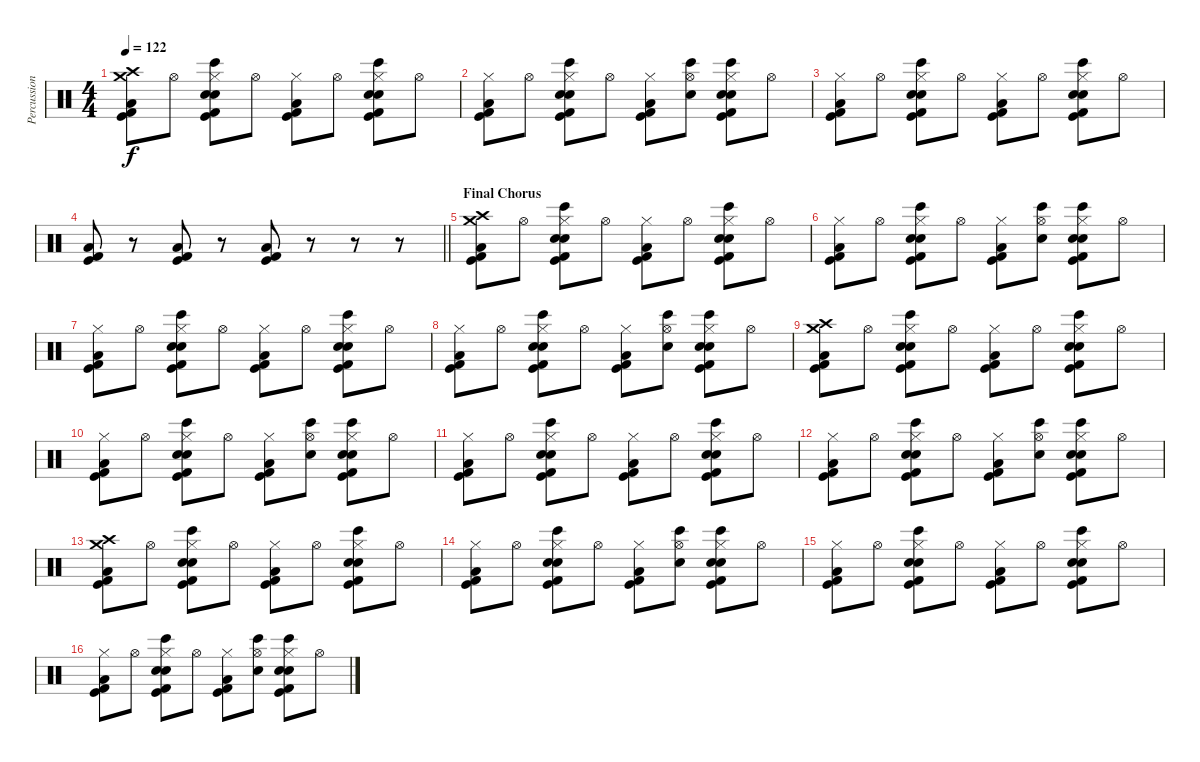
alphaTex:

\track ("Percussion" "Percussion") {instrument percussion}
\staff {score}
\articulation defaults
\ts (4 4)
\tempo 122
\clef neutral
\ks c
("Crash medium (hit)" "Crash high (hit)" "Low Floor Tom (hit)" "Kick (hit)" "Kick (hit) 2").8{dy f balance 8} "Hi-Hat (open)".8 ("Hand Clap (hit)" "Bongo High (hit)" "Hi-Hat (closed)" "Electric Snare (hit)" "Kick (hit)" "Kick (hit) 2").8 "Hi-Hat (open)".8 ("Hi-Hat (closed)" "Low Floor Tom (hit)" "Kick (hit)" "Kick (hit) 2").8 "Hi-Hat (open)".8 ("Hand Clap (hit)" "Bongo High (hit)" "Hi-Hat (closed)" "Electric Snare (hit)" "Kick (hit)" "Kick (hit) 2").8 "Hi-Hat (open)".8 |
("Hi-Hat (closed)" "Low Floor Tom (hit)" "Kick (hit)" "Kick (hit) 2").8 "Hi-Hat (open)".8 ("Hand Clap (hit)" "Bongo High (hit)" "Hi-Hat (closed)" "Electric Snare (hit)" "Kick (hit)" "Kick (hit) 2").8 "Hi-Hat (open)".8 ("Hi-Hat (closed)" "Low Floor Tom (hit)" "Kick (hit)" "Kick (hit) 2").8 ("Hand Clap (hit)" "Bongo High (hit)" "Hi-Hat (open)").8 ("Hand Clap (hit)" "Bongo High (hit)" "Hi-Hat (closed)" "Electric Snare (hit)" "Kick (hit)" "Kick (hit) 2").8 "Hi-Hat (open)".8 |
("Hi-Hat (closed)" "Low Floor Tom (hit)" "Kick (hit)" "Kick (hit) 2").8 "Hi-Hat (open)".8 ("Hand Clap (hit)" "Bongo High (hit)" "Hi-Hat (closed)" "Electric Snare (hit)" "Kick (hit)" "Kick (hit) 2").8 "Hi-Hat (open)".8 ("Hi-Hat (closed)" "Low Floor Tom (hit)" "Kick (hit)" "Kick (hit) 2").8 "Hi-Hat (open)".8 ("Hand Clap (hit)" "Bongo High (hit)" "Hi-Hat (closed)" "Electric Snare (hit)" "Kick (hit)" "Kick (hit) 2").8 "Hi-Hat (open)".8 |
\barLineRight lightlight
("Low Floor Tom (hit)" "Kick (hit) 2" "Kick (hit)").8 r.8 ("Low Floor Tom (hit)" "Kick (hit) 2" "Kick (hit)").8 r.8 ("Low Floor Tom (hit)" "Kick (hit) 2" "Kick (hit)").8 r.8 r.8 r.8 |
\section ("" "Final Chorus")
("Crash medium (hit)" "Crash high (hit)" "Low Floor Tom (hit)" "Kick (hit)" "Kick (hit) 2").8 "Hi-Hat (open)".8 ("Hand Clap (hit)" "Bongo High (hit)" "Hi-Hat (closed)" "Electric Snare (hit)" "Kick (hit)" "Kick (hit) 2").8 "Hi-Hat (open)".8 ("Hi-Hat (closed)" "Low Floor Tom (hit)" "Kick (hit)" "Kick (hit) 2").8 "Hi-Hat (open)".8 ("Hand Clap (hit)" "Bongo High (hit)" "Hi-Hat (closed)" "Electric Snare (hit)" "Kick (hit)" "Kick (hit) 2").8 "Hi-Hat (open)".8 |
("Hi-Hat (closed)" "Low Floor Tom (hit)" "Kick (hit)" "Kick (hit) 2").8 "Hi-Hat (open)".8 ("Hand Clap (hit)" "Bongo High (hit)" "Hi-Hat (closed)" "Electric Snare (hit)" "Kick (hit)" "Kick (hit) 2").8 "Hi-Hat (open)".8 ("Hi-Hat (closed)" "Low Floor Tom (hit)" "Kick (hit)" "Kick (hit) 2").8 ("Hand Clap (hit)" "Bongo High (hit)" "Hi-Hat (open)").8 ("Hand Clap (hit)" "Bongo High (hit)" "Hi-Hat (closed)" "Electric Snare (hit)" "Kick (hit)" "Kick (hit) 2").8 "Hi-Hat (open)".8 |
("Hi-Hat (closed)" "Low Floor Tom (hit)" "Kick (hit)" "Kick (hit) 2").8 "Hi-Hat (open)".8 ("Hand Clap (hit)" "Bongo High (hit)" "Hi-Hat (closed)" "Electric Snare (hit)" "Kick (hit)" "Kick (hit) 2").8 "Hi-Hat (open)".8 ("Hi-Hat (closed)" "Low Floor Tom (hit)" "Kick (hit)" "Kick (hit) 2").8 "Hi-Hat (open)".8 ("Hand Clap (hit)" "Bongo High (hit)" "Hi-Hat (closed)" "Electric Snare (hit)" "Kick (hit)" "Kick (hit) 2").8 "Hi-Hat (open)".8 |
("Hi-Hat (closed)" "Low Floor Tom (hit)" "Kick (hit)" "Kick (hit) 2").8 "Hi-Hat (open)".8 ("Hand Clap (hit)" "Bongo High (hit)" "Hi-Hat (closed)" "Electric Snare (hit)" "Kick (hit)" "Kick (hit) 2").8 "Hi-Hat (open)".8 ("Hi-Hat (closed)" "Low Floor Tom (hit)" "Kick (hit)" "Kick (hit) 2").8 ("Hand Clap (hit)" "Bongo High (hit)" "Hi-Hat (open)").8 ("Hand Clap (hit)" "Bongo High (hit)" "Hi-Hat (closed)" "Electric Snare (hit)" "Kick (hit)" "Kick (hit) 2").8 "Hi-Hat (open)".8 |
("Crash medium (hit)" "Crash high (hit)" "Low Floor Tom (hit)" "Kick (hit)" "Kick (hit) 2").8 "Hi-Hat (open)".8 ("Hand Clap (hit)" "Bongo High (hit)" "Hi-Hat (closed)" "Electric Snare (hit)" "Kick (hit)" "Kick (hit) 2").8 "Hi-Hat (open)".8 ("Hi-Hat (closed)" "Low Floor Tom (hit)" "Kick (hit)" "Kick (hit) 2").8 "Hi-Hat (open)".8 ("Hand Clap (hit)" "Bongo High (hit)" "Hi-Hat (closed)" "Electric Snare (hit)" "Kick (hit)" "Kick (hit) 2").8 "Hi-Hat (open)".8 |
("Hi-Hat (closed)" "Low Floor Tom (hit)" "Kick (hit)" "Kick (hit) 2").8 "Hi-Hat (open)".8 ("Hand Clap (hit)" "Bongo High (hit)" "Hi-Hat (closed)" "Electric Snare (hit)" "Kick (hit)" "Kick (hit) 2").8 "Hi-Hat (open)".8 ("Hi-Hat (closed)" "Low Floor Tom (hit)" "Kick (hit)" "Kick (hit) 2").8 ("Hand Clap (hit)" "Bongo High (hit)" "Hi-Hat (open)").8 ("Hand Clap (hit)" "Bongo High (hit)" "Hi-Hat (closed)" "Electric Snare (hit)" "Kick (hit)" "Kick (hit) 2").8 "Hi-Hat (open)".8 |
("Hi-Hat (closed)" "Low Floor Tom (hit)" "Kick (hit)" "Kick (hit) 2").8 "Hi-Hat (open)".8 ("Hand Clap (hit)" "Bongo High (hit)" "Hi-Hat (closed)" "Electric Snare (hit)" "Kick (hit)" "Kick (hit) 2").8 "Hi-Hat (open)".8 ("Hi-Hat (closed)" "Low Floor Tom (hit)" "Kick (hit)" "Kick (hit) 2").8 "Hi-Hat (open)".8 ("Hand Clap (hit)" "Bongo High (hit)" "Hi-Hat (closed)" "Electric Snare (hit)" "Kick (hit)" "Kick (hit) 2").8 "Hi-Hat (open)".8 |
("Hi-Hat (closed)" "Low Floor Tom (hit)" "Kick (hit)" "Kick (hit) 2").8 "Hi-Hat (open)".8 ("Hand Clap (hit)" "Bongo High (hit)" "Hi-Hat (closed)" "Electric Snare (hit)" "Kick (hit)" "Kick (hit) 2").8 "Hi-Hat (open)".8 ("Hi-Hat (closed)" "Low Floor Tom (hit)" "Kick (hit)" "Kick (hit) 2").8 ("Hand Clap (hit)" "Bongo High (hit)" "Hi-Hat (open)").8 ("Hand Clap (hit)" "Bongo High (hit)" "Hi-Hat (closed)" "Electric Snare (hit)" "Kick (hit)" "Kick (hit) 2").8 "Hi-Hat (open)".8 |
("Crash medium (hit)" "Crash high (hit)" "Low Floor Tom (hit)" "Kick (hit)" "Kick (hit) 2").8 "Hi-Hat (open)".8 ("Hand Clap (hit)" "Bongo High (hit)" "Hi-Hat (closed)" "Electric Snare (hit)" "Kick (hit)" "Kick (hit) 2").8 "Hi-Hat (open)".8 ("Hi-Hat (closed)" "Low Floor Tom (hit)" "Kick (hit)" "Kick (hit) 2").8 "Hi-Hat (open)".8 ("Hand Clap (hit)" "Bongo High (hit)" "Hi-Hat (closed)" "Electric Snare (hit)" "Kick (hit)" "Kick (hit) 2").8 "Hi-Hat (open)".8 |
("Hi-Hat (closed)" "Low Floor Tom (hit)" "Kick (hit)" "Kick (hit) 2").8 "Hi-Hat (open)".8 ("Hand Clap (hit)" "Bongo High (hit)" "Hi-Hat (closed)" "Electric Snare (hit)" "Kick (hit)" "Kick (hit) 2").8 "Hi-Hat (open)".8 ("Hi-Hat (closed)" "Low Floor Tom (hit)" "Kick (hit)" "Kick (hit) 2").8 ("Hand Clap (hit)" "Bongo High (hit)" "Hi-Hat (open)").8 ("Hand Clap (hit)" "Bongo High (hit)" "Hi-Hat (closed)" "Electric Snare (hit)" "Kick (hit)" "Kick (hit) 2").8 "Hi-Hat (open)".8 |
("Hi-Hat (closed)" "Low Floor Tom (hit)" "Kick (hit)" "Kick (hit) 2").8 "Hi-Hat (open)".8 ("Hand Clap (hit)" "Bongo High (hit)" "Hi-Hat (closed)" "Electric Snare (hit)" "Kick (hit)" "Kick (hit) 2").8 "Hi-Hat (open)".8 ("Hi-Hat (closed)" "Low Floor Tom (hit)" "Kick (hit)" "Kick (hit) 2").8 "Hi-Hat (open)".8 ("Hand Clap (hit)" "Bongo High (hit)" "Hi-Hat (closed)" "Electric Snare (hit)" "Kick (hit)" "Kick (hit) 2").8 "Hi-Hat (open)".8 |
("Hi-Hat (closed)" "Low Floor Tom (hit)" "Kick (hit)" "Kick (hit) 2").8 "Hi-Hat (open)".8 ("Hand Clap (hit)" "Bongo High (hit)" "Hi-Hat (closed)" "Electric Snare (hit)" "Kick (hit)" "Kick (hit) 2").8 "Hi-Hat (open)".8 ("Hi-Hat (closed)" "Low Floor Tom (hit)" "Kick (hit)" "Kick (hit) 2").8 ("Hand Clap (hit)" "Bongo High (hit)" "Hi-Hat (open)").8 ("Hand Clap (hit)" "Bongo High (hit)" "Hi-Hat (closed)" "Electric Snare (hit)" "Kick (hit)" "Kick (hit) 2").8 "Hi-Hat (open)".8
